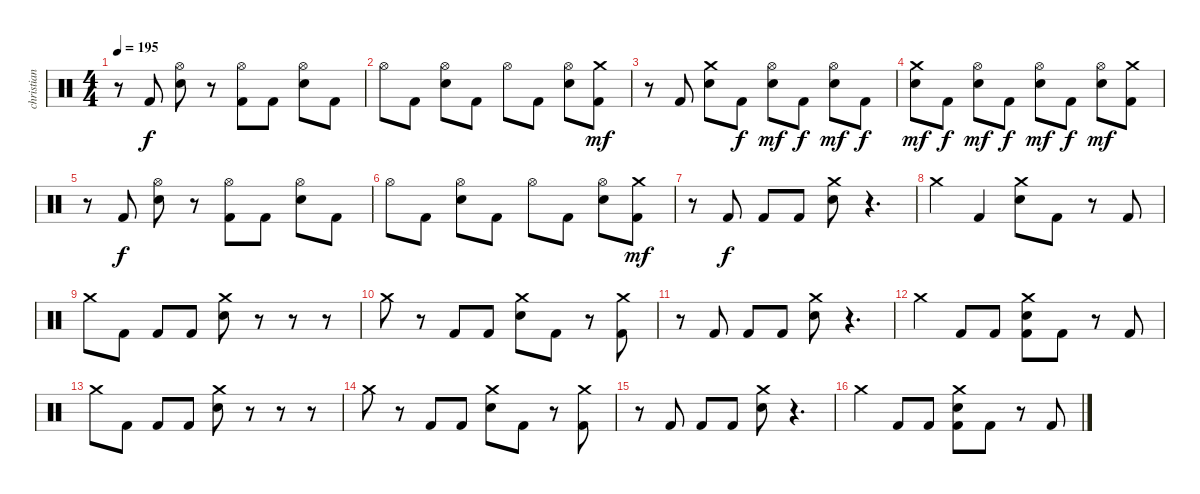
\track ("christian" "christian") {instrument percussion}
\staff {score}
\articulation defaults
\ts (4 4)
\tempo 195
\clef neutral
\ks c
r.8{dy mf} "Kick (hit) 2".8{dy f} ("Hi-Hat (open)" "Electric Snare (hit)").8 r.8 ("Hi-Hat (open)" "Kick (hit) 2").8 "Kick (hit) 2".8 ("Hi-Hat (open)" "Electric Snare (hit)").8 "Kick (hit) 2".8 |
"Hi-Hat (open)".8 "Kick (hit) 2".8 ("Hi-Hat (open)" "Electric Snare (hit)").8 "Kick (hit) 2".8 "Hi-Hat (open)".8 "Kick (hit) 2".8 ("Hi-Hat (open)" "Electric Snare (hit)").8 ("Crash medium (hit)" "Kick (hit) 2").8{dy mf} |
r.8 "Kick (hit) 2".8 ("Crash medium (hit)" "Electric Snare (hit)").8 "Kick (hit) 2".8{dy f} ("Hi-Hat (open)" "Electric Snare (hit)").8{dy mf} "Kick (hit) 2".8{dy f} ("Hi-Hat (open)" "Electric Snare (hit)").8{dy mf} "Kick (hit) 2".8{dy f} |
("Crash medium (hit)" "Electric Snare (hit)").8{dy mf} "Kick (hit) 2".8{dy f} ("Hi-Hat (open)" "Electric Snare (hit)").8{dy mf} "Kick (hit) 2".8{dy f} ("Hi-Hat (open)" "Electric Snare (hit)").8{dy mf} "Kick (hit) 2".8{dy f} ("Hi-Hat (open)" "Electric Snare (hit)").8{dy mf} ("Crash medium (hit)" "Kick (hit) 2").8 |
r.8 "Kick (hit) 2".8{dy f} ("Hi-Hat (open)" "Electric Snare (hit)").8 r.8 ("Hi-Hat (open)" "Kick (hit) 2").8 "Kick (hit) 2".8 ("Hi-Hat (open)" "Electric Snare (hit)").8 "Kick (hit) 2".8 |
"Hi-Hat (open)".8 "Kick (hit) 2".8 ("Hi-Hat (open)" "Electric Snare (hit)").8 "Kick (hit) 2".8 "Hi-Hat (open)".8 "Kick (hit) 2".8 ("Hi-Hat (open)" "Electric Snare (hit)").8 ("Crash medium (hit)" "Kick (hit) 2").8{dy mf} |
r.8 "Kick (hit) 2".8{dy f} "Kick (hit) 2".8 "Kick (hit) 2".8 ("Crash medium (hit)" "Electric Snare (hit)").8 r.4{d} |
"Crash medium (hit)".4 "Kick (hit) 2".4 ("Crash medium (hit)" "Electric Snare (hit)").8 "Kick (hit) 2".8 r.8 "Kick (hit) 2".8 |
"Crash medium (hit)".8 "Kick (hit) 2".8 "Kick (hit) 2".8 "Kick (hit) 2".8 ("Crash medium (hit)" "Electric Snare (hit)").8 r.8 r.8 r.8 |
"Crash medium (hit)".8 r.8 "Kick (hit) 2".8 "Kick (hit) 2".8 ("Crash medium (hit)" "Electric Snare (hit)").8 "Kick (hit) 2".8 r.8 ("Crash medium (hit)" "Kick (hit) 2").8 |
r.8 "Kick (hit) 2".8 "Kick (hit) 2".8 "Kick (hit) 2".8 ("Crash medium (hit)" "Electric Snare (hit)").8 r.4{d} |
"Crash medium (hit)".4 "Kick (hit) 2".8 "Kick (hit) 2".8 ("Crash medium (hit)" "Electric Snare (hit)" "Kick (hit) 2").8 "Kick (hit) 2".8 r.8 "Kick (hit) 2".8 |
"Crash medium (hit)".8 "Kick (hit) 2".8 "Kick (hit) 2".8 "Kick (hit) 2".8 ("Crash medium (hit)" "Electric Snare (hit)").8 r.8 r.8 r.8 |
"Crash medium (hit)".8 r.8 "Kick (hit) 2".8 "Kick (hit) 2".8 ("Crash medium (hit)" "Electric Snare (hit)").8 "Kick (hit) 2".8 r.8 ("Crash medium (hit)" "Kick (hit) 2").8 |
r.8 "Kick (hit) 2".8 "Kick (hit) 2".8 "Kick (hit) 2".8 ("Crash medium (hit)" "Electric Snare (hit)").8 r.4{d} |
"Crash medium (hit)".4 "Kick (hit) 2".8 "Kick (hit) 2".8 ("Crash medium (hit)" "Electric Snare (hit)" "Kick (hit) 2").8 "Kick (hit) 2".8 r.8 "Kick (hit) 2".8
